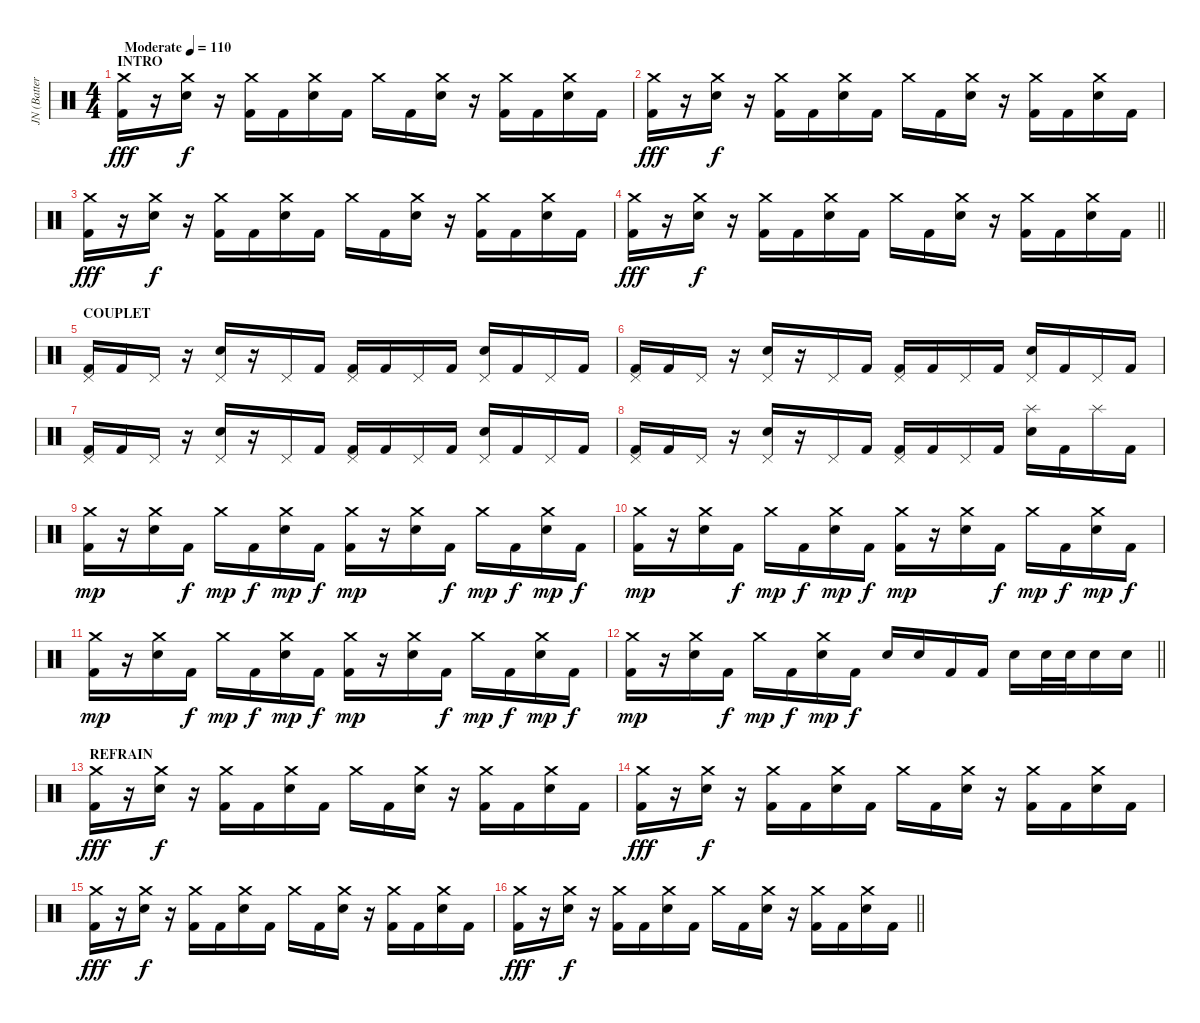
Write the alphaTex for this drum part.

\track ("JN (Batterie)" "JN (Batter") {instrument percussion}
\staff {score}
\articulation defaults
\ts (4 4)
\section ("" "INTRO")
\tempo (110 "Moderate")
\clef neutral
\ks c
("Crash medium (hit)" "Kick (hit) 2").16{dy fff} r.16 ("Crash medium (hit)" "Electric Snare (hit)").16{dy f} r.16 ("Crash medium (hit)" "Kick (hit) 2").16 "Kick (hit) 2".16 ("Crash medium (hit)" "Electric Snare (hit)").16 "Kick (hit) 2".16 "Crash medium (hit)".16 "Kick (hit) 2".16 ("Crash medium (hit)" "Electric Snare (hit)").16 r.16 ("Crash medium (hit)" "Kick (hit) 2").16 "Kick (hit) 2".16 ("Crash medium (hit)" "Electric Snare (hit)").16 "Kick (hit) 2".16 |
("Crash medium (hit)" "Kick (hit) 2").16{dy fff} r.16 ("Crash medium (hit)" "Electric Snare (hit)").16{dy f} r.16 ("Crash medium (hit)" "Kick (hit) 2").16 "Kick (hit) 2".16 ("Crash medium (hit)" "Electric Snare (hit)").16 "Kick (hit) 2".16 "Crash medium (hit)".16 "Kick (hit) 2".16 ("Crash medium (hit)" "Electric Snare (hit)").16 r.16 ("Crash medium (hit)" "Kick (hit) 2").16 "Kick (hit) 2".16 ("Crash medium (hit)" "Electric Snare (hit)").16 "Kick (hit) 2".16 |
("Crash medium (hit)" "Kick (hit) 2").16{dy fff} r.16 ("Crash medium (hit)" "Electric Snare (hit)").16{dy f} r.16 ("Crash medium (hit)" "Kick (hit) 2").16 "Kick (hit) 2".16 ("Crash medium (hit)" "Electric Snare (hit)").16 "Kick (hit) 2".16 "Crash medium (hit)".16 "Kick (hit) 2".16 ("Crash medium (hit)" "Electric Snare (hit)").16 r.16 ("Crash medium (hit)" "Kick (hit) 2").16 "Kick (hit) 2".16 ("Crash medium (hit)" "Electric Snare (hit)").16 "Kick (hit) 2".16 |
\barLineRight lightlight
("Crash medium (hit)" "Kick (hit) 2").16{dy fff} r.16 ("Crash medium (hit)" "Electric Snare (hit)").16{dy f} r.16 ("Crash medium (hit)" "Kick (hit) 2").16 "Kick (hit) 2".16 ("Crash medium (hit)" "Electric Snare (hit)").16 "Kick (hit) 2".16 "Crash medium (hit)".16 "Kick (hit) 2".16 ("Crash medium (hit)" "Electric Snare (hit)").16 r.16 ("Crash medium (hit)" "Kick (hit) 2").16 "Kick (hit) 2".16 ("Crash medium (hit)" "Electric Snare (hit)").16 "Kick (hit) 2".16 |
\section ("" "COUPLET")
("Pedal Hi-Hat (hit)" "Kick (hit) 2").16 "Kick (hit) 2".16 "Pedal Hi-Hat (hit)".16 r.16 ("Pedal Hi-Hat (hit)" "Electric Snare (hit)").16 r.16 "Pedal Hi-Hat (hit)".16 "Kick (hit) 2".16 ("Pedal Hi-Hat (hit)" "Kick (hit) 2").16 "Kick (hit) 2".16 "Pedal Hi-Hat (hit)".16 "Kick (hit) 2".16 ("Pedal Hi-Hat (hit)" "Electric Snare (hit)").16 "Kick (hit) 2".16 "Pedal Hi-Hat (hit)".16 "Kick (hit) 2".16 |
("Pedal Hi-Hat (hit)" "Kick (hit) 2").16 "Kick (hit) 2".16 "Pedal Hi-Hat (hit)".16 r.16 ("Pedal Hi-Hat (hit)" "Electric Snare (hit)").16 r.16 "Pedal Hi-Hat (hit)".16 "Kick (hit) 2".16 ("Pedal Hi-Hat (hit)" "Kick (hit) 2").16 "Kick (hit) 2".16 "Pedal Hi-Hat (hit)".16 "Kick (hit) 2".16 ("Pedal Hi-Hat (hit)" "Electric Snare (hit)").16 "Kick (hit) 2".16 "Pedal Hi-Hat (hit)".16 "Kick (hit) 2".16 |
("Pedal Hi-Hat (hit)" "Kick (hit) 2").16 "Kick (hit) 2".16 "Pedal Hi-Hat (hit)".16 r.16 ("Pedal Hi-Hat (hit)" "Electric Snare (hit)").16 r.16 "Pedal Hi-Hat (hit)".16 "Kick (hit) 2".16 ("Pedal Hi-Hat (hit)" "Kick (hit) 2").16 "Kick (hit) 2".16 "Pedal Hi-Hat (hit)".16 "Kick (hit) 2".16 ("Pedal Hi-Hat (hit)" "Electric Snare (hit)").16 "Kick (hit) 2".16 "Pedal Hi-Hat (hit)".16 "Kick (hit) 2".16 |
("Pedal Hi-Hat (hit)" "Kick (hit) 2").16 "Kick (hit) 2".16 "Pedal Hi-Hat (hit)".16 r.16 ("Pedal Hi-Hat (hit)" "Electric Snare (hit)").16 r.16 "Pedal Hi-Hat (hit)".16 "Kick (hit) 2".16 ("Pedal Hi-Hat (hit)" "Kick (hit) 2").16 "Kick (hit) 2".16 "Pedal Hi-Hat (hit)".16 "Kick (hit) 2".16 ("Splash (hit)" "Electric Snare (hit)").16 "Kick (hit) 2".16 "Splash (hit)".16 "Kick (hit) 2".16 |
("Crash medium (hit)" "Kick (hit) 2").16{dy mp} r.16 ("Crash medium (hit)" "Electric Snare (hit)").16 "Kick (hit) 2".16{dy f} "Crash medium (hit)".16{dy mp} "Kick (hit) 2".16{dy f} ("Crash medium (hit)" "Electric Snare (hit)").16{dy mp} "Kick (hit) 2".16{dy f} ("Crash medium (hit)" "Kick (hit) 2").16{dy mp} r.16 ("Crash medium (hit)" "Electric Snare (hit)").16 "Kick (hit) 2".16{dy f} "Crash medium (hit)".16{dy mp} "Kick (hit) 2".16{dy f} ("Crash medium (hit)" "Electric Snare (hit)").16{dy mp} "Kick (hit) 2".16{dy f} |
("Crash medium (hit)" "Kick (hit) 2").16{dy mp} r.16 ("Crash medium (hit)" "Electric Snare (hit)").16 "Kick (hit) 2".16{dy f} "Crash medium (hit)".16{dy mp} "Kick (hit) 2".16{dy f} ("Crash medium (hit)" "Electric Snare (hit)").16{dy mp} "Kick (hit) 2".16{dy f} ("Crash medium (hit)" "Kick (hit) 2").16{dy mp} r.16 ("Crash medium (hit)" "Electric Snare (hit)").16 "Kick (hit) 2".16{dy f} "Crash medium (hit)".16{dy mp} "Kick (hit) 2".16{dy f} ("Crash medium (hit)" "Electric Snare (hit)").16{dy mp} "Kick (hit) 2".16{dy f} |
("Crash medium (hit)" "Kick (hit) 2").16{dy mp} r.16 ("Crash medium (hit)" "Electric Snare (hit)").16 "Kick (hit) 2".16{dy f} "Crash medium (hit)".16{dy mp} "Kick (hit) 2".16{dy f} ("Crash medium (hit)" "Electric Snare (hit)").16{dy mp} "Kick (hit) 2".16{dy f} ("Crash medium (hit)" "Kick (hit) 2").16{dy mp} r.16 ("Crash medium (hit)" "Electric Snare (hit)").16 "Kick (hit) 2".16{dy f} "Crash medium (hit)".16{dy mp} "Kick (hit) 2".16{dy f} ("Crash medium (hit)" "Electric Snare (hit)").16{dy mp} "Kick (hit) 2".16{dy f} |
\barLineRight lightlight
("Crash medium (hit)" "Kick (hit) 2").16{dy mp} r.16 ("Crash medium (hit)" "Electric Snare (hit)").16 "Kick (hit) 2".16{dy f} "Crash medium (hit)".16{dy mp} "Kick (hit) 2".16{dy f} ("Crash medium (hit)" "Electric Snare (hit)").16{dy mp} "Kick (hit) 2".16{dy f} "Electric Snare (hit)".16 "Electric Snare (hit)".16 "Kick (hit) 2".16 "Kick (hit) 2".16 "Electric Snare (hit)".16 "Electric Snare (hit)".32 "Electric Snare (hit)".32 "Electric Snare (hit)".16 "Electric Snare (hit)".16 |
\section ("" "REFRAIN")
("Crash medium (hit)" "Kick (hit) 2").16{dy fff} r.16 ("Crash medium (hit)" "Electric Snare (hit)").16{dy f} r.16 ("Crash medium (hit)" "Kick (hit) 2").16 "Kick (hit) 2".16 ("Crash medium (hit)" "Electric Snare (hit)").16 "Kick (hit) 2".16 "Crash medium (hit)".16 "Kick (hit) 2".16 ("Crash medium (hit)" "Electric Snare (hit)").16 r.16 ("Crash medium (hit)" "Kick (hit) 2").16 "Kick (hit) 2".16 ("Crash medium (hit)" "Electric Snare (hit)").16 "Kick (hit) 2".16 |
("Crash medium (hit)" "Kick (hit) 2").16{dy fff} r.16 ("Crash medium (hit)" "Electric Snare (hit)").16{dy f} r.16 ("Crash medium (hit)" "Kick (hit) 2").16 "Kick (hit) 2".16 ("Crash medium (hit)" "Electric Snare (hit)").16 "Kick (hit) 2".16 "Crash medium (hit)".16 "Kick (hit) 2".16 ("Crash medium (hit)" "Electric Snare (hit)").16 r.16 ("Crash medium (hit)" "Kick (hit) 2").16 "Kick (hit) 2".16 ("Crash medium (hit)" "Electric Snare (hit)").16 "Kick (hit) 2".16 |
("Crash medium (hit)" "Kick (hit) 2").16{dy fff} r.16 ("Crash medium (hit)" "Electric Snare (hit)").16{dy f} r.16 ("Crash medium (hit)" "Kick (hit) 2").16 "Kick (hit) 2".16 ("Crash medium (hit)" "Electric Snare (hit)").16 "Kick (hit) 2".16 "Crash medium (hit)".16 "Kick (hit) 2".16 ("Crash medium (hit)" "Electric Snare (hit)").16 r.16 ("Crash medium (hit)" "Kick (hit) 2").16 "Kick (hit) 2".16 ("Crash medium (hit)" "Electric Snare (hit)").16 "Kick (hit) 2".16 |
\barLineRight lightlight
("Crash medium (hit)" "Kick (hit) 2").16{dy fff} r.16 ("Crash medium (hit)" "Electric Snare (hit)").16{dy f} r.16 ("Crash medium (hit)" "Kick (hit) 2").16 "Kick (hit) 2".16 ("Crash medium (hit)" "Electric Snare (hit)").16 "Kick (hit) 2".16 "Crash medium (hit)".16 "Kick (hit) 2".16 ("Crash medium (hit)" "Electric Snare (hit)").16 r.16 ("Crash medium (hit)" "Kick (hit) 2").16 "Kick (hit) 2".16 ("Crash medium (hit)" "Electric Snare (hit)").16 "Kick (hit) 2".16
